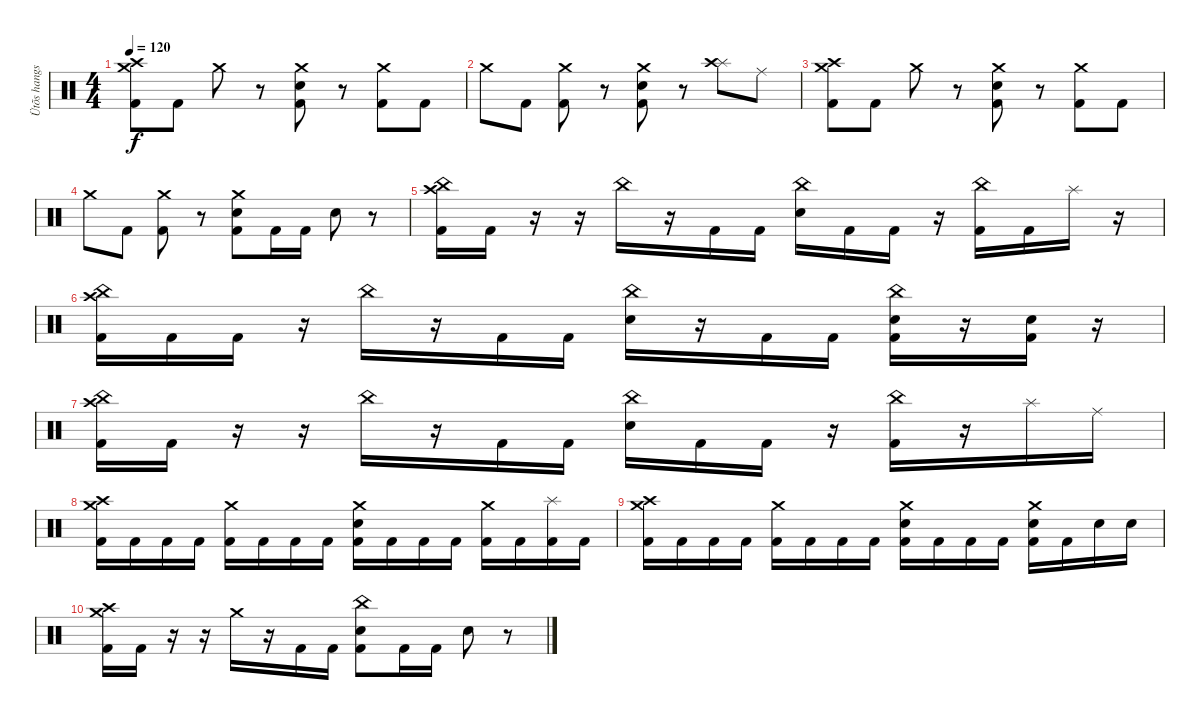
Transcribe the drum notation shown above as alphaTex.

\track ("Ütõs hangszer" "Ütõs hangs") {instrument percussion}
\staff {score}
\articulation defaults
\ts (4 4)
\tempo 120
\clef neutral
\ks c
("Crash medium (hit)" "Crash high (hit)" "Kick (hit) 2").8{dy f} "Kick (hit) 2".8 "Crash medium (hit)".8 r.8 ("Crash medium (hit)" "Electric Snare (hit)" "Kick (hit) 2").8 r.8 ("Crash medium (hit)" "Kick (hit) 2").8 "Kick (hit) 2".8 |
"Crash medium (hit)".8 "Kick (hit) 2".8 ("Crash medium (hit)" "Kick (hit) 2").8 r.8 ("Crash medium (hit)" "Electric Snare (hit)" "Kick (hit) 2").8 r.8 ("Splash (hit)" "Crash high (hit)").8 "Ride (middle)".8 |
("Crash medium (hit)" "Crash high (hit)" "Kick (hit) 2").8 "Kick (hit) 2".8 "Crash medium (hit)".8 r.8 ("Crash medium (hit)" "Electric Snare (hit)" "Kick (hit) 2").8 r.8 ("Crash medium (hit)" "Kick (hit) 2").8 "Kick (hit) 2".8 |
"Crash medium (hit)".8 "Kick (hit) 2".8 ("Crash medium (hit)" "Kick (hit) 2").8 r.8 ("Crash medium (hit)" "Electric Snare (hit)" "Kick (hit) 2").8 "Kick (hit) 2".16 "Kick (hit) 2".16 "Electric Snare (hit)".8 r.8 |
("China (hit)" "Crash high (hit)" "Kick (hit) 2").16 "Kick (hit) 2".16 r.16 r.16 "China (hit)".16 r.16 "Kick (hit) 2".16 "Kick (hit) 2".16 ("China (hit)" "Electric Snare (hit)").16 "Kick (hit) 2".16 "Kick (hit) 2".16 r.16 ("China (hit)" "Kick (hit) 2").16 "Kick (hit) 2".16 "Splash (hit)".16 r.16 |
("China (hit)" "Crash high (hit)" "Kick (hit) 2").16 "Kick (hit) 2".16 "Kick (hit) 2".16 r.16 "China (hit)".16 r.16 "Kick (hit) 2".16 "Kick (hit) 2".16 ("China (hit)" "Electric Snare (hit)").16 r.16 "Kick (hit) 2".16 "Kick (hit) 2".16 ("China (hit)" "Electric Snare (hit)" "Kick (hit) 2").16 r.16 ("Electric Snare (hit)" "Kick (hit) 2").16 r.16 |
("China (hit)" "Crash high (hit)" "Kick (hit) 2").16 "Kick (hit) 2".16 r.16 r.16 "China (hit)".16 r.16 "Kick (hit) 2".16 "Kick (hit) 2".16 ("China (hit)" "Electric Snare (hit)").16 "Kick (hit) 2".16 "Kick (hit) 2".16 r.16 ("China (hit)" "Kick (hit) 2").16 r.16 "Splash (hit)".16 "Ride (middle)".16 |
("Crash medium (hit)" "Crash high (hit)" "Kick (hit) 2").16 "Kick (hit) 2".16 "Kick (hit) 2".16 "Kick (hit) 2".16 ("Crash medium (hit)" "Kick (hit) 2").16 "Kick (hit) 2".16 "Kick (hit) 2".16 "Kick (hit) 2".16 ("Crash medium (hit)" "Electric Snare (hit)" "Kick (hit) 2").16 "Kick (hit) 2".16 "Kick (hit) 2".16 "Kick (hit) 2".16 ("Crash medium (hit)" "Kick (hit) 2").16 "Kick (hit) 2".16 ("Splash (hit)" "Kick (hit) 2").16 "Kick (hit) 2".16 |
("Crash medium (hit)" "Crash high (hit)" "Kick (hit) 2").16 "Kick (hit) 2".16 "Kick (hit) 2".16 "Kick (hit) 2".16 ("Crash medium (hit)" "Kick (hit) 2").16 "Kick (hit) 2".16 "Kick (hit) 2".16 "Kick (hit) 2".16 ("Crash medium (hit)" "Electric Snare (hit)" "Kick (hit) 2").16 "Kick (hit) 2".16 "Kick (hit) 2".16 "Kick (hit) 2".16 ("Crash medium (hit)" "Electric Snare (hit)" "Kick (hit) 2").16 "Kick (hit) 2".16 "Electric Snare (hit)".16 "Electric Snare (hit)".16 |
("Crash medium (hit)" "Crash high (hit)" "Kick (hit) 2").16 "Kick (hit) 2".16 r.16 r.16 "Crash medium (hit)".16 r.16 "Kick (hit) 2".16 "Kick (hit) 2".16 ("China (hit)" "Electric Snare (hit)" "Kick (hit) 2").8 "Kick (hit) 2".16 "Kick (hit) 2".16 "Electric Snare (hit)".8 r.8
